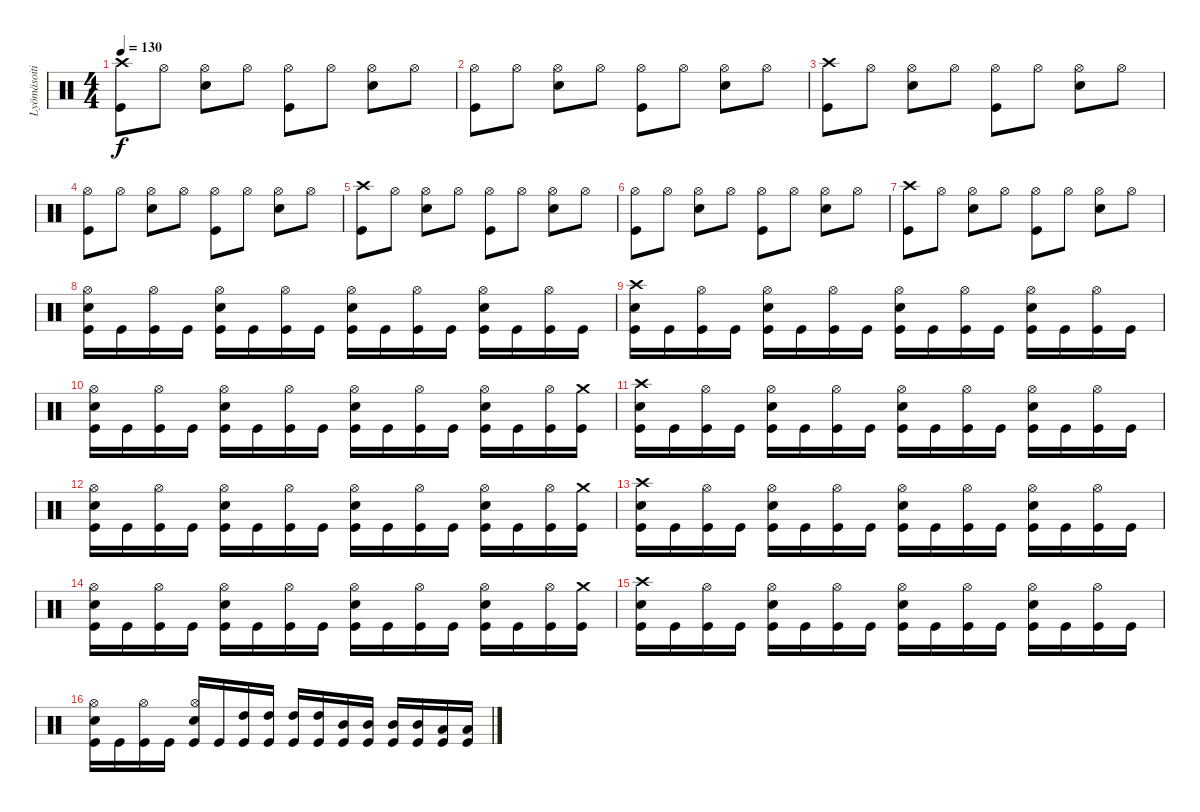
\track ("Lyömäsoitin" "Lyömäsoiti") {instrument percussion}
\staff {score}
\articulation defaults
\ts (4 4)
\tempo 130
\clef neutral
\ks c
("Crash high (hit)" "Kick (hit)").8{dy f} "Hi-Hat (open)".8 ("Hi-Hat (open)" "Snare (hit) 2").8 "Hi-Hat (open)".8 ("Hi-Hat (open)" "Kick (hit)").8 "Hi-Hat (open)".8 ("Hi-Hat (open)" "Snare (hit) 2").8 "Hi-Hat (open)".8 |
("Hi-Hat (open)" "Kick (hit)").8 "Hi-Hat (open)".8 ("Hi-Hat (open)" "Snare (hit) 2").8 "Hi-Hat (open)".8 ("Hi-Hat (open)" "Kick (hit)").8 "Hi-Hat (open)".8 ("Hi-Hat (open)" "Snare (hit) 2").8 "Hi-Hat (open)".8 |
("Crash high (hit)" "Kick (hit)").8 "Hi-Hat (open)".8 ("Hi-Hat (open)" "Snare (hit) 2").8 "Hi-Hat (open)".8 ("Hi-Hat (open)" "Kick (hit)").8 "Hi-Hat (open)".8 ("Hi-Hat (open)" "Snare (hit) 2").8 "Hi-Hat (open)".8 |
("Hi-Hat (open)" "Kick (hit)").8 "Hi-Hat (open)".8 ("Hi-Hat (open)" "Snare (hit) 2").8 "Hi-Hat (open)".8 ("Hi-Hat (open)" "Kick (hit)").8 "Hi-Hat (open)".8 ("Hi-Hat (open)" "Snare (hit) 2").8 "Hi-Hat (open)".8 |
("Crash high (hit)" "Kick (hit)").8 "Hi-Hat (open)".8 ("Hi-Hat (open)" "Snare (hit) 2").8 "Hi-Hat (open)".8 ("Hi-Hat (open)" "Kick (hit)").8 "Hi-Hat (open)".8 ("Hi-Hat (open)" "Snare (hit) 2").8 "Hi-Hat (open)".8 |
("Hi-Hat (open)" "Kick (hit)").8 "Hi-Hat (open)".8 ("Hi-Hat (open)" "Snare (hit) 2").8 "Hi-Hat (open)".8 ("Hi-Hat (open)" "Kick (hit)").8 "Hi-Hat (open)".8 ("Hi-Hat (open)" "Snare (hit) 2").8 "Hi-Hat (open)".8 |
("Crash high (hit)" "Kick (hit)").8 "Hi-Hat (open)".8 ("Hi-Hat (open)" "Snare (hit) 2").8 "Hi-Hat (open)".8 ("Hi-Hat (open)" "Kick (hit)").8 "Hi-Hat (open)".8 ("Hi-Hat (open)" "Snare (hit) 2").8 "Hi-Hat (open)".8 |
("Hi-Hat (open)" "Snare (hit) 2" "Kick (hit)").16 "Kick (hit)".16 ("Hi-Hat (open)" "Kick (hit)").16 "Kick (hit)".16 ("Hi-Hat (open)" "Snare (hit) 2" "Kick (hit)").16 "Kick (hit)".16 ("Hi-Hat (open)" "Kick (hit)").16 "Kick (hit)".16 ("Hi-Hat (open)" "Snare (hit) 2" "Kick (hit)").16 "Kick (hit)".16 ("Hi-Hat (open)" "Kick (hit)").16 "Kick (hit)".16 ("Hi-Hat (open)" "Snare (hit) 2" "Kick (hit)").16 "Kick (hit)".16 ("Hi-Hat (open)" "Kick (hit)").16 "Kick (hit)".16 |
("Crash high (hit)" "Snare (hit) 2" "Kick (hit)").16 "Kick (hit)".16 ("Hi-Hat (open)" "Kick (hit)").16 "Kick (hit)".16 ("Hi-Hat (open)" "Snare (hit) 2" "Kick (hit)").16 "Kick (hit)".16 ("Hi-Hat (open)" "Kick (hit)").16 "Kick (hit)".16 ("Hi-Hat (open)" "Snare (hit) 2" "Kick (hit)").16 "Kick (hit)".16 ("Hi-Hat (open)" "Kick (hit)").16 "Kick (hit)".16 ("Hi-Hat (open)" "Snare (hit) 2" "Kick (hit)").16 "Kick (hit)".16 ("Hi-Hat (open)" "Kick (hit)").16 "Kick (hit)".16 |
("Hi-Hat (open)" "Snare (hit) 2" "Kick (hit)").16 "Kick (hit)".16 ("Hi-Hat (open)" "Kick (hit)").16 "Kick (hit)".16 ("Hi-Hat (open)" "Snare (hit) 2" "Kick (hit)").16 "Kick (hit)".16 ("Hi-Hat (open)" "Kick (hit)").16 "Kick (hit)".16 ("Hi-Hat (open)" "Snare (hit) 2" "Kick (hit)").16 "Kick (hit)".16 ("Hi-Hat (open)" "Kick (hit)").16 "Kick (hit)".16 ("Hi-Hat (open)" "Snare (hit) 2" "Kick (hit)").16 "Kick (hit)".16 ("Hi-Hat (open)" "Kick (hit)").16 ("Crash medium (hit)" "Kick (hit)").16 |
("Crash high (hit)" "Snare (hit) 2" "Kick (hit)").16 "Kick (hit)".16 ("Hi-Hat (open)" "Kick (hit)").16 "Kick (hit)".16 ("Hi-Hat (open)" "Snare (hit) 2" "Kick (hit)").16 "Kick (hit)".16 ("Hi-Hat (open)" "Kick (hit)").16 "Kick (hit)".16 ("Hi-Hat (open)" "Snare (hit) 2" "Kick (hit)").16 "Kick (hit)".16 ("Hi-Hat (open)" "Kick (hit)").16 "Kick (hit)".16 ("Hi-Hat (open)" "Snare (hit) 2" "Kick (hit)").16 "Kick (hit)".16 ("Hi-Hat (open)" "Kick (hit)").16 "Kick (hit)".16 |
("Hi-Hat (open)" "Snare (hit) 2" "Kick (hit)").16 "Kick (hit)".16 ("Hi-Hat (open)" "Kick (hit)").16 "Kick (hit)".16 ("Hi-Hat (open)" "Snare (hit) 2" "Kick (hit)").16 "Kick (hit)".16 ("Hi-Hat (open)" "Kick (hit)").16 "Kick (hit)".16 ("Hi-Hat (open)" "Snare (hit) 2" "Kick (hit)").16 "Kick (hit)".16 ("Hi-Hat (open)" "Kick (hit)").16 "Kick (hit)".16 ("Hi-Hat (open)" "Snare (hit) 2" "Kick (hit)").16 "Kick (hit)".16 ("Hi-Hat (open)" "Kick (hit)").16 ("Crash medium (hit)" "Kick (hit)").16 |
("Crash high (hit)" "Snare (hit) 2" "Kick (hit)").16 "Kick (hit)".16 ("Hi-Hat (open)" "Kick (hit)").16 "Kick (hit)".16 ("Hi-Hat (open)" "Snare (hit) 2" "Kick (hit)").16 "Kick (hit)".16 ("Hi-Hat (open)" "Kick (hit)").16 "Kick (hit)".16 ("Hi-Hat (open)" "Snare (hit) 2" "Kick (hit)").16 "Kick (hit)".16 ("Hi-Hat (open)" "Kick (hit)").16 "Kick (hit)".16 ("Hi-Hat (open)" "Snare (hit) 2" "Kick (hit)").16 "Kick (hit)".16 ("Hi-Hat (open)" "Kick (hit)").16 "Kick (hit)".16 |
("Hi-Hat (open)" "Snare (hit) 2" "Kick (hit)").16 "Kick (hit)".16 ("Hi-Hat (open)" "Kick (hit)").16 "Kick (hit)".16 ("Hi-Hat (open)" "Snare (hit) 2" "Kick (hit)").16 "Kick (hit)".16 ("Hi-Hat (open)" "Kick (hit)").16 "Kick (hit)".16 ("Hi-Hat (open)" "Snare (hit) 2" "Kick (hit)").16 "Kick (hit)".16 ("Hi-Hat (open)" "Kick (hit)").16 "Kick (hit)".16 ("Hi-Hat (open)" "Snare (hit) 2" "Kick (hit)").16 "Kick (hit)".16 ("Hi-Hat (open)" "Kick (hit)").16 ("Crash medium (hit)" "Kick (hit)").16 |
("Crash high (hit)" "Snare (hit) 2" "Kick (hit)").16 "Kick (hit)".16 ("Hi-Hat (open)" "Kick (hit)").16 "Kick (hit)".16 ("Hi-Hat (open)" "Snare (hit) 2" "Kick (hit)").16 "Kick (hit)".16 ("Hi-Hat (open)" "Kick (hit)").16 "Kick (hit)".16 ("Hi-Hat (open)" "Snare (hit) 2" "Kick (hit)").16 "Kick (hit)".16 ("Hi-Hat (open)" "Kick (hit)").16 "Kick (hit)".16 ("Hi-Hat (open)" "Snare (hit) 2" "Kick (hit)").16 "Kick (hit)".16 ("Hi-Hat (open)" "Kick (hit)").16 "Kick (hit)".16 |
("Hi-Hat (open)" "Snare (hit) 2" "Kick (hit)").16 "Kick (hit)".16 ("Hi-Hat (open)" "Kick (hit)").16 "Kick (hit)".16 ("Hi-Hat (open)" "Snare (hit) 2" "Kick (hit)").16 "Kick (hit)".16 ("High Tom (hit)" "Kick (hit)").16 ("High Tom (hit)" "Kick (hit)").16 ("High Tom (hit)" "Kick (hit)").16 ("High Tom (hit)" "Kick (hit)").16 ("Mid Tom (hit)" "Kick (hit)").16 ("Mid Tom (hit)" "Kick (hit)").16 ("Mid Tom (hit)" "Kick (hit)").16 ("Mid Tom (hit)" "Kick (hit)").16 ("Low Tom (hit)" "Kick (hit)").16 ("Low Tom (hit)" "Kick (hit)").16
